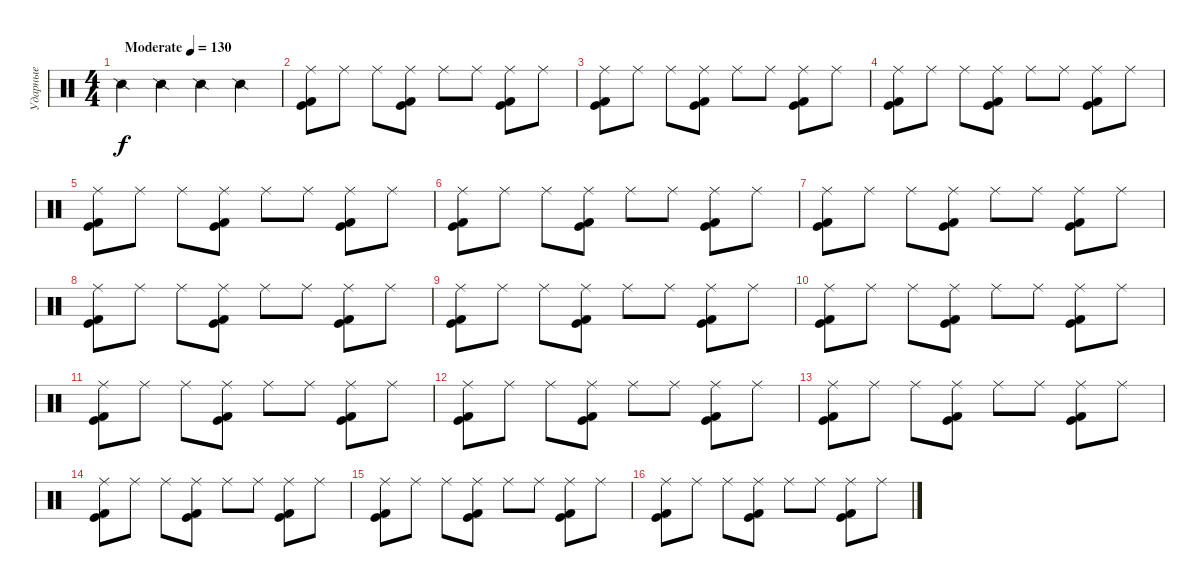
\track ("Ударные" "Ударные") {instrument percussion}
\staff {score}
\articulation defaults
\ts (4 4)
\tempo (130 "Moderate")
\clef neutral
\ks c "Snare (side stick) 2".4{dy f} "Snare (side stick) 2".4 "Snare (side stick) 2".4 "Snare (side stick) 2".4
|
("Ride (middle)" "Kick (hit)" "Kick (hit) 2").8 "Ride (middle)".8 "Ride (middle)".8 ("Ride (middle)" "Kick (hit)" "Kick (hit) 2").8 "Ride (middle)".8 "Ride (middle)".8 ("Ride (middle)" "Kick (hit)" "Kick (hit) 2").8 "Ride (middle)".8 |
("Ride (middle)" "Kick (hit)" "Kick (hit) 2").8 "Ride (middle)".8 "Ride (middle)".8 ("Ride (middle)" "Kick (hit)" "Kick (hit) 2").8 "Ride (middle)".8 "Ride (middle)".8 ("Ride (middle)" "Kick (hit)" "Kick (hit) 2").8 "Ride (middle)".8 |
("Ride (middle)" "Kick (hit)" "Kick (hit) 2").8 "Ride (middle)".8 "Ride (middle)".8 ("Ride (middle)" "Kick (hit)" "Kick (hit) 2").8 "Ride (middle)".8 "Ride (middle)".8 ("Ride (middle)" "Kick (hit)" "Kick (hit) 2").8 "Ride (middle)".8 |
("Ride (middle)" "Kick (hit)" "Kick (hit) 2").8 "Ride (middle)".8 "Ride (middle)".8 ("Ride (middle)" "Kick (hit)" "Kick (hit) 2").8 "Ride (middle)".8 "Ride (middle)".8 ("Ride (middle)" "Kick (hit)" "Kick (hit) 2").8 "Ride (middle)".8 |
("Ride (middle)" "Kick (hit)" "Kick (hit) 2").8 "Ride (middle)".8 "Ride (middle)".8 ("Ride (middle)" "Kick (hit)" "Kick (hit) 2").8 "Ride (middle)".8 "Ride (middle)".8 ("Ride (middle)" "Kick (hit)" "Kick (hit) 2").8 "Ride (middle)".8 |
("Ride (middle)" "Kick (hit)" "Kick (hit) 2").8 "Ride (middle)".8 "Ride (middle)".8 ("Ride (middle)" "Kick (hit)" "Kick (hit) 2").8 "Ride (middle)".8 "Ride (middle)".8 ("Ride (middle)" "Kick (hit)" "Kick (hit) 2").8 "Ride (middle)".8 |
("Ride (middle)" "Kick (hit)" "Kick (hit) 2").8 "Ride (middle)".8 "Ride (middle)".8 ("Ride (middle)" "Kick (hit)" "Kick (hit) 2").8 "Ride (middle)".8 "Ride (middle)".8 ("Ride (middle)" "Kick (hit)" "Kick (hit) 2").8 "Ride (middle)".8 |
("Ride (middle)" "Kick (hit)" "Kick (hit) 2").8 "Ride (middle)".8 "Ride (middle)".8 ("Ride (middle)" "Kick (hit)" "Kick (hit) 2").8 "Ride (middle)".8 "Ride (middle)".8 ("Ride (middle)" "Kick (hit)" "Kick (hit) 2").8 "Ride (middle)".8 |
("Ride (middle)" "Kick (hit)" "Kick (hit) 2").8 "Ride (middle)".8 "Ride (middle)".8 ("Ride (middle)" "Kick (hit)" "Kick (hit) 2").8 "Ride (middle)".8 "Ride (middle)".8 ("Ride (middle)" "Kick (hit)" "Kick (hit) 2").8 "Ride (middle)".8 |
("Ride (middle)" "Kick (hit)" "Kick (hit) 2").8 "Ride (middle)".8 "Ride (middle)".8 ("Ride (middle)" "Kick (hit)" "Kick (hit) 2").8 "Ride (middle)".8 "Ride (middle)".8 ("Ride (middle)" "Kick (hit)" "Kick (hit) 2").8 "Ride (middle)".8 |
("Ride (middle)" "Kick (hit)" "Kick (hit) 2").8 "Ride (middle)".8 "Ride (middle)".8 ("Ride (middle)" "Kick (hit)" "Kick (hit) 2").8 "Ride (middle)".8 "Ride (middle)".8 ("Ride (middle)" "Kick (hit)" "Kick (hit) 2").8 "Ride (middle)".8 |
("Ride (middle)" "Kick (hit)" "Kick (hit) 2").8 "Ride (middle)".8 "Ride (middle)".8 ("Ride (middle)" "Kick (hit)" "Kick (hit) 2").8 "Ride (middle)".8 "Ride (middle)".8 ("Ride (middle)" "Kick (hit)" "Kick (hit) 2").8 "Ride (middle)".8 |
("Ride (middle)" "Kick (hit)" "Kick (hit) 2").8 "Ride (middle)".8 "Ride (middle)".8 ("Ride (middle)" "Kick (hit)" "Kick (hit) 2").8 "Ride (middle)".8 "Ride (middle)".8 ("Ride (middle)" "Kick (hit)" "Kick (hit) 2").8 "Ride (middle)".8 |
("Ride (middle)" "Kick (hit)" "Kick (hit) 2").8 "Ride (middle)".8 "Ride (middle)".8 ("Ride (middle)" "Kick (hit)" "Kick (hit) 2").8 "Ride (middle)".8 "Ride (middle)".8 ("Ride (middle)" "Kick (hit)" "Kick (hit) 2").8 "Ride (middle)".8 |
("Ride (middle)" "Kick (hit)" "Kick (hit) 2").8 "Ride (middle)".8 "Ride (middle)".8 ("Ride (middle)" "Kick (hit)" "Kick (hit) 2").8 "Ride (middle)".8 "Ride (middle)".8 ("Ride (middle)" "Kick (hit)" "Kick (hit) 2").8 "Ride (middle)".8
